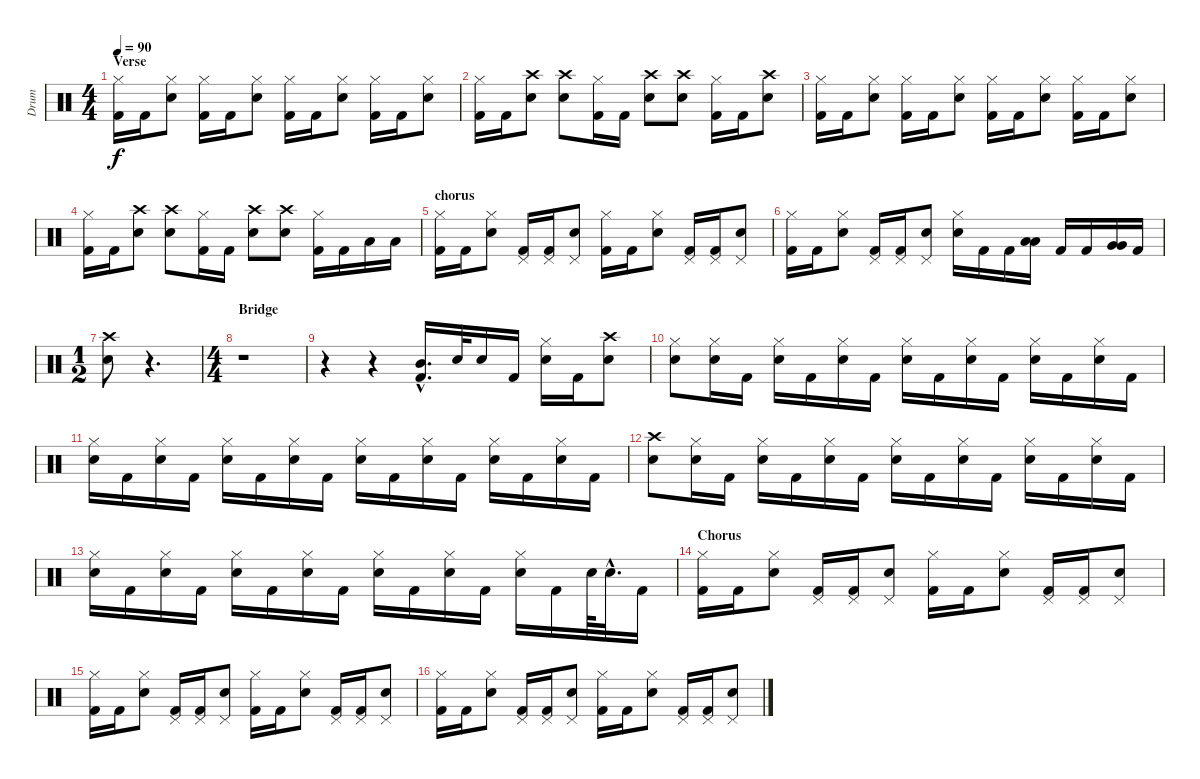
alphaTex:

\track ("Drum" "Drum") {instrument percussion}
\staff {score}
\articulation defaults
\ts (4 4)
\section ("" "Verse")
\tempo 90
\clef neutral
\ks c
("Hi-Hat (closed)" "Kick (hit) 2").16{dy f} "Kick (hit) 2".16 ("Hi-Hat (closed)" "Electric Snare (hit)").8 ("Hi-Hat (closed)" "Kick (hit) 2").16 "Kick (hit) 2".16 ("Hi-Hat (closed)" "Electric Snare (hit)").8 ("Hi-Hat (closed)" "Kick (hit) 2").16 "Kick (hit) 2".16 ("Hi-Hat (closed)" "Electric Snare (hit)").8 ("Hi-Hat (closed)" "Kick (hit) 2").16 "Kick (hit) 2".16 ("Hi-Hat (closed)" "Electric Snare (hit)").8 |
("Hi-Hat (closed)" "Kick (hit) 2").16 "Kick (hit) 2".16 ("Crash high (hit)" "Electric Snare (hit)").8 ("Crash high (hit)" "Electric Snare (hit)").8 ("Hi-Hat (closed)" "Kick (hit) 2").16 "Kick (hit) 2".16 ("Crash high (hit)" "Electric Snare (hit)").8 ("Crash high (hit)" "Electric Snare (hit)").8 ("Hi-Hat (closed)" "Kick (hit) 2").16 "Kick (hit) 2".16 ("Crash high (hit)" "Electric Snare (hit)").8 |
("Hi-Hat (closed)" "Kick (hit) 2").16 "Kick (hit) 2".16 ("Hi-Hat (closed)" "Electric Snare (hit)").8 ("Hi-Hat (closed)" "Kick (hit) 2").16 "Kick (hit) 2".16 ("Hi-Hat (closed)" "Electric Snare (hit)").8 ("Hi-Hat (closed)" "Kick (hit) 2").16 "Kick (hit) 2".16 ("Hi-Hat (closed)" "Electric Snare (hit)").8 ("Hi-Hat (closed)" "Kick (hit) 2").16 "Kick (hit) 2".16 ("Hi-Hat (closed)" "Electric Snare (hit)").8 |
("Hi-Hat (closed)" "Kick (hit) 2").16 "Kick (hit) 2".16 ("Crash high (hit)" "Electric Snare (hit)").8 ("Crash high (hit)" "Electric Snare (hit)").8 ("Hi-Hat (closed)" "Kick (hit) 2").16 "Kick (hit) 2".16 ("Crash high (hit)" "Electric Snare (hit)").8 ("Crash high (hit)" "Electric Snare (hit)").8 ("Hi-Hat (closed)" "Kick (hit) 2").16 "Kick (hit) 2".16 "Low Tom (hit)".16 "Low Tom (hit)".16 |
\section ("" "chorus")
("Hi-Hat (closed)" "Kick (hit) 2").16 "Kick (hit) 2".16 ("Hi-Hat (closed)" "Electric Snare (hit)").8 ("Pedal Hi-Hat (hit)" "Kick (hit) 2").16 ("Pedal Hi-Hat (hit)" "Kick (hit) 2").16 ("Pedal Hi-Hat (hit)" "Electric Snare (hit)").8 ("Hi-Hat (closed)" "Kick (hit) 2").16 "Kick (hit) 2".16 ("Hi-Hat (closed)" "Electric Snare (hit)").8 ("Pedal Hi-Hat (hit)" "Kick (hit) 2").16 ("Pedal Hi-Hat (hit)" "Kick (hit) 2").16 ("Pedal Hi-Hat (hit)" "Electric Snare (hit)").8 |
("Hi-Hat (closed)" "Kick (hit) 2").16 "Kick (hit) 2".16 ("Hi-Hat (closed)" "Electric Snare (hit)").8 ("Pedal Hi-Hat (hit)" "Kick (hit) 2").16 ("Pedal Hi-Hat (hit)" "Kick (hit) 2").16 ("Pedal Hi-Hat (hit)" "Electric Snare (hit)").8 ("Hi-Hat (closed)" "Electric Snare (hit)").16 "Kick (hit) 2".16 "Kick (hit) 2".16 ("Low Tom (hit)" "Low Tom (hit)").16 "Kick (hit) 2".16 "Kick (hit) 2".16 ("Very Low Tom (hit)" "Very Low Tom (hit)").16 "Kick (hit) 2".16 |
\ts (1 2)
("Crash high (hit)" "Electric Snare (hit)").8 r.4{d} |
\ts (4 4)
\section ("" "Bridge")
r.1 |
r.4 r.4 ("Mid Tom (hit)"{hac} "Kick (hit) 2"{hac}).16{d} "Electric Snare (hit)".32 "Electric Snare (hit)".16 "Kick (hit) 2".16 ("Hi-Hat (closed)" "Electric Snare (hit)").16 "Kick (hit) 2".16 ("Crash high (hit)" "Electric Snare (hit)").8 |
("Hi-Hat (closed)" "Electric Snare (hit)").8 ("Hi-Hat (closed)" "Electric Snare (hit)").16 "Kick (hit) 2".16 ("Hi-Hat (closed)" "Electric Snare (hit)").16 "Kick (hit) 2".16 ("Hi-Hat (closed)" "Electric Snare (hit)").16 "Kick (hit) 2".16 ("Hi-Hat (closed)" "Electric Snare (hit)").16 "Kick (hit) 2".16 ("Hi-Hat (closed)" "Electric Snare (hit)").16 "Kick (hit) 2".16 ("Hi-Hat (closed)" "Electric Snare (hit)").16 "Kick (hit) 2".16 ("Hi-Hat (closed)" "Electric Snare (hit)").16 "Kick (hit) 2".16 |
("Hi-Hat (closed)" "Electric Snare (hit)").16 "Kick (hit) 2".16 ("Hi-Hat (closed)" "Electric Snare (hit)").16 "Kick (hit) 2".16 ("Hi-Hat (closed)" "Electric Snare (hit)").16 "Kick (hit) 2".16 ("Hi-Hat (closed)" "Electric Snare (hit)").16 "Kick (hit) 2".16 ("Hi-Hat (closed)" "Electric Snare (hit)").16 "Kick (hit) 2".16 ("Hi-Hat (closed)" "Electric Snare (hit)").16 "Kick (hit) 2".16 ("Hi-Hat (closed)" "Electric Snare (hit)").16 "Kick (hit) 2".16 ("Hi-Hat (closed)" "Electric Snare (hit)").16 "Kick (hit) 2".16 |
("Crash high (hit)" "Electric Snare (hit)").8 ("Hi-Hat (closed)" "Electric Snare (hit)").16 "Kick (hit) 2".16 ("Hi-Hat (closed)" "Electric Snare (hit)").16 "Kick (hit) 2".16 ("Hi-Hat (closed)" "Electric Snare (hit)").16 "Kick (hit) 2".16 ("Hi-Hat (closed)" "Electric Snare (hit)").16 "Kick (hit) 2".16 ("Hi-Hat (closed)" "Electric Snare (hit)").16 "Kick (hit) 2".16 ("Hi-Hat (closed)" "Electric Snare (hit)").16 "Kick (hit) 2".16 ("Hi-Hat (closed)" "Electric Snare (hit)").16 "Kick (hit) 2".16 |
("Hi-Hat (closed)" "Electric Snare (hit)").16 "Kick (hit) 2".16 ("Hi-Hat (closed)" "Electric Snare (hit)").16 "Kick (hit) 2".16 ("Hi-Hat (closed)" "Electric Snare (hit)").16 "Kick (hit) 2".16 ("Hi-Hat (closed)" "Electric Snare (hit)").16 "Kick (hit) 2".16 ("Hi-Hat (closed)" "Electric Snare (hit)").16 "Kick (hit) 2".16 ("Hi-Hat (closed)" "Electric Snare (hit)").16 "Kick (hit) 2".16 ("Hi-Hat (closed)" "Electric Snare (hit)").16 "Kick (hit) 2".16 "Electric Snare (hit)".64 "Electric Snare (hit)"{hac}.32{d} "Kick (hit) 2".16 |
\section ("" "Chorus")
("Hi-Hat (closed)" "Kick (hit) 2").16 "Kick (hit) 2".16 ("Hi-Hat (closed)" "Electric Snare (hit)").8 ("Pedal Hi-Hat (hit)" "Kick (hit) 2").16 ("Pedal Hi-Hat (hit)" "Kick (hit) 2").16 ("Pedal Hi-Hat (hit)" "Electric Snare (hit)").8 ("Hi-Hat (closed)" "Kick (hit) 2").16 "Kick (hit) 2".16 ("Hi-Hat (closed)" "Electric Snare (hit)").8 ("Pedal Hi-Hat (hit)" "Kick (hit) 2").16 ("Pedal Hi-Hat (hit)" "Kick (hit) 2").16 ("Pedal Hi-Hat (hit)" "Electric Snare (hit)").8 |
("Hi-Hat (closed)" "Kick (hit) 2").16 "Kick (hit) 2".16 ("Hi-Hat (closed)" "Electric Snare (hit)").8 ("Pedal Hi-Hat (hit)" "Kick (hit) 2").16 ("Pedal Hi-Hat (hit)" "Kick (hit) 2").16 ("Pedal Hi-Hat (hit)" "Electric Snare (hit)").8 ("Hi-Hat (closed)" "Kick (hit) 2").16 "Kick (hit) 2".16 ("Hi-Hat (closed)" "Electric Snare (hit)").8 ("Pedal Hi-Hat (hit)" "Kick (hit) 2").16 ("Pedal Hi-Hat (hit)" "Kick (hit) 2").16 ("Pedal Hi-Hat (hit)" "Electric Snare (hit)").8 |
("Hi-Hat (closed)" "Kick (hit) 2").16 "Kick (hit) 2".16 ("Hi-Hat (closed)" "Electric Snare (hit)").8 ("Pedal Hi-Hat (hit)" "Kick (hit) 2").16 ("Pedal Hi-Hat (hit)" "Kick (hit) 2").16 ("Pedal Hi-Hat (hit)" "Electric Snare (hit)").8 ("Hi-Hat (closed)" "Kick (hit) 2").16 "Kick (hit) 2".16 ("Hi-Hat (closed)" "Electric Snare (hit)").8 ("Pedal Hi-Hat (hit)" "Kick (hit) 2").16 ("Pedal Hi-Hat (hit)" "Kick (hit) 2").16 ("Pedal Hi-Hat (hit)" "Electric Snare (hit)").8
